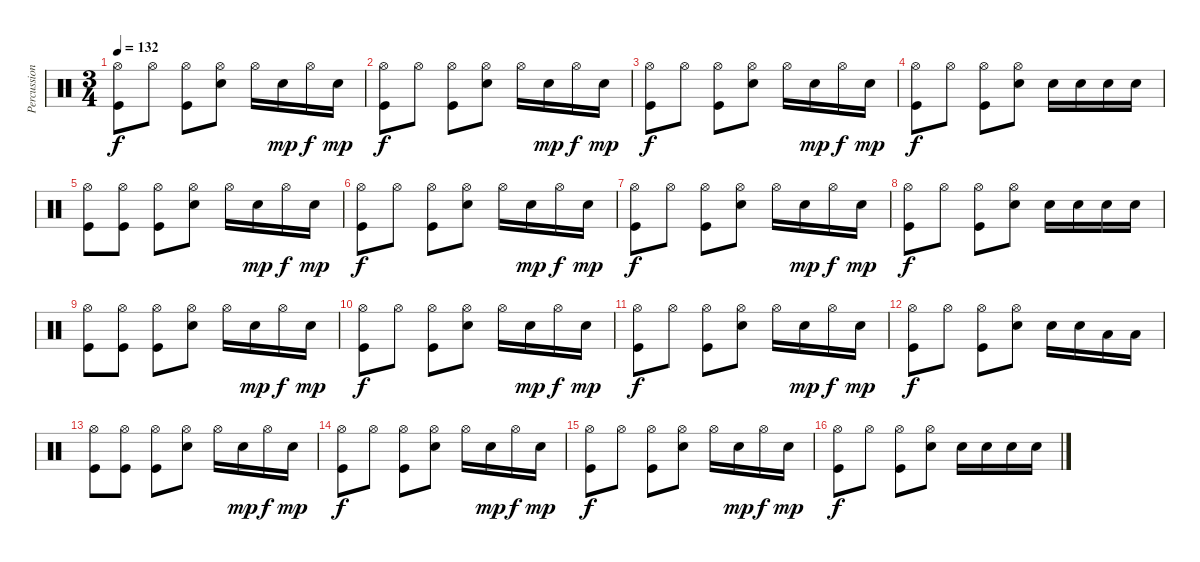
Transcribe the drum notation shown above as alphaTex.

\track ("Percussion" "Percussion") {instrument percussion}
\staff {score}
\articulation defaults
\ts (3 4)
\tempo 132
\clef neutral
\ks c
("Hi-Hat (open)" "Kick (hit)").8{dy f} "Hi-Hat (open)".8 ("Hi-Hat (open)" "Kick (hit)").8 ("Hi-Hat (open)" "Snare (hit) 2").8 "Hi-Hat (open)".16 "Snare (hit) 2".16{dy mp} "Hi-Hat (open)".16{dy f} "Snare (hit) 2".16{dy mp} |
("Hi-Hat (open)" "Kick (hit)").8{dy f} "Hi-Hat (open)".8 ("Hi-Hat (open)" "Kick (hit)").8 ("Hi-Hat (open)" "Snare (hit) 2").8 "Hi-Hat (open)".16 "Snare (hit) 2".16{dy mp} "Hi-Hat (open)".16{dy f} "Snare (hit) 2".16{dy mp} |
("Hi-Hat (open)" "Kick (hit)").8{dy f} "Hi-Hat (open)".8 ("Hi-Hat (open)" "Kick (hit)").8 ("Hi-Hat (open)" "Snare (hit) 2").8 "Hi-Hat (open)".16 "Snare (hit) 2".16{dy mp} "Hi-Hat (open)".16{dy f} "Snare (hit) 2".16{dy mp} |
("Hi-Hat (open)" "Kick (hit)").8{dy f} "Hi-Hat (open)".8 ("Hi-Hat (open)" "Kick (hit)").8 ("Hi-Hat (open)" "Snare (hit) 2").8 "Snare (hit) 2".16 "Snare (hit) 2".16 "Snare (hit) 2".16 "Snare (hit) 2".16 |
("Hi-Hat (open)" "Kick (hit)").8 ("Hi-Hat (open)" "Kick (hit)").8 ("Hi-Hat (open)" "Kick (hit)").8 ("Hi-Hat (open)" "Snare (hit) 2").8 "Hi-Hat (open)".16 "Snare (hit) 2".16{dy mp} "Hi-Hat (open)".16{dy f} "Snare (hit) 2".16{dy mp} |
("Hi-Hat (open)" "Kick (hit)").8{dy f} "Hi-Hat (open)".8 ("Hi-Hat (open)" "Kick (hit)").8 ("Hi-Hat (open)" "Snare (hit) 2").8 "Hi-Hat (open)".16 "Snare (hit) 2".16{dy mp} "Hi-Hat (open)".16{dy f} "Snare (hit) 2".16{dy mp} |
("Hi-Hat (open)" "Kick (hit)").8{dy f} "Hi-Hat (open)".8 ("Hi-Hat (open)" "Kick (hit)").8 ("Hi-Hat (open)" "Snare (hit) 2").8 "Hi-Hat (open)".16 "Snare (hit) 2".16{dy mp} "Hi-Hat (open)".16{dy f} "Snare (hit) 2".16{dy mp} |
("Hi-Hat (open)" "Kick (hit)").8{dy f} "Hi-Hat (open)".8 ("Hi-Hat (open)" "Kick (hit)").8 ("Hi-Hat (open)" "Snare (hit) 2").8 "Snare (hit) 2".16 "Snare (hit) 2".16 "Snare (hit) 2".16 "Snare (hit) 2".16 |
("Hi-Hat (open)" "Kick (hit)").8 ("Hi-Hat (open)" "Kick (hit)").8 ("Hi-Hat (open)" "Kick (hit)").8 ("Hi-Hat (open)" "Snare (hit) 2").8 "Hi-Hat (open)".16 "Snare (hit) 2".16{dy mp} "Hi-Hat (open)".16{dy f} "Snare (hit) 2".16{dy mp} |
("Hi-Hat (open)" "Kick (hit)").8{dy f} "Hi-Hat (open)".8 ("Hi-Hat (open)" "Kick (hit)").8 ("Hi-Hat (open)" "Snare (hit) 2").8 "Hi-Hat (open)".16 "Snare (hit) 2".16{dy mp} "Hi-Hat (open)".16{dy f} "Snare (hit) 2".16{dy mp} |
("Hi-Hat (open)" "Kick (hit)").8{dy f} "Hi-Hat (open)".8 ("Hi-Hat (open)" "Kick (hit)").8 ("Hi-Hat (open)" "Snare (hit) 2").8 "Hi-Hat (open)".16 "Snare (hit) 2".16{dy mp} "Hi-Hat (open)".16{dy f} "Snare (hit) 2".16{dy mp} |
("Hi-Hat (open)" "Kick (hit)").8{dy f} "Hi-Hat (open)".8 ("Hi-Hat (open)" "Kick (hit)").8 ("Hi-Hat (open)" "Snare (hit) 2").8 "Snare (hit) 2".16 "Snare (hit) 2".16 "Low Tom (hit)".16 "Low Tom (hit)".16 |
("Hi-Hat (open)" "Kick (hit)").8 ("Hi-Hat (open)" "Kick (hit)").8 ("Hi-Hat (open)" "Kick (hit)").8 ("Hi-Hat (open)" "Snare (hit) 2").8 "Hi-Hat (open)".16 "Snare (hit) 2".16{dy mp} "Hi-Hat (open)".16{dy f} "Snare (hit) 2".16{dy mp} |
("Hi-Hat (open)" "Kick (hit)").8{dy f} "Hi-Hat (open)".8 ("Hi-Hat (open)" "Kick (hit)").8 ("Hi-Hat (open)" "Snare (hit) 2").8 "Hi-Hat (open)".16 "Snare (hit) 2".16{dy mp} "Hi-Hat (open)".16{dy f} "Snare (hit) 2".16{dy mp} |
("Hi-Hat (open)" "Kick (hit)").8{dy f} "Hi-Hat (open)".8 ("Hi-Hat (open)" "Kick (hit)").8 ("Hi-Hat (open)" "Snare (hit) 2").8 "Hi-Hat (open)".16 "Snare (hit) 2".16{dy mp} "Hi-Hat (open)".16{dy f} "Snare (hit) 2".16{dy mp} |
("Hi-Hat (open)" "Kick (hit)").8{dy f} "Hi-Hat (open)".8 ("Hi-Hat (open)" "Kick (hit)").8 ("Hi-Hat (open)" "Snare (hit) 2").8 "Snare (hit) 2".16 "Snare (hit) 2".16 "Snare (hit) 2".16 "Snare (hit) 2".16
